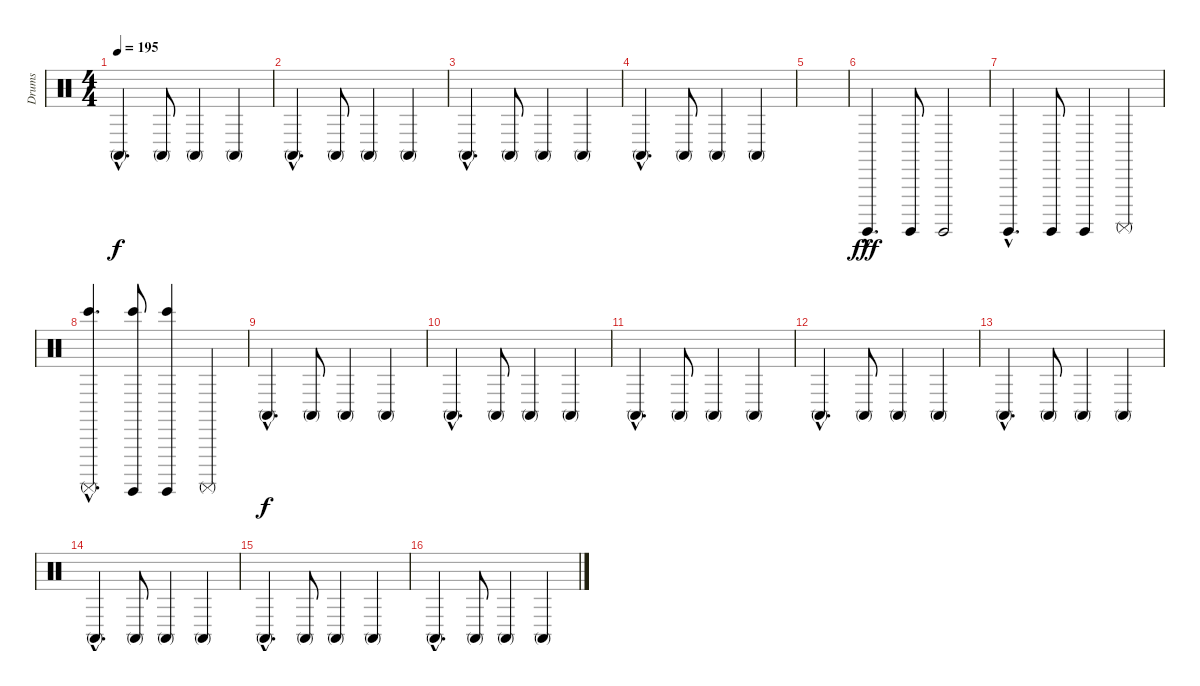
\track ("Drums" "Drums") {instrument percussion}
\staff {score}
\articulation defaults
\ts (4 4)
\tempo 195
\clef neutral
\ks c "Conga high (mute)"{hac}.4{d dy f} "Conga high (mute)".8 "Conga high (mute)".4 "Conga high (mute)".4
|
"Conga high (mute)"{hac}.4{d} "Conga high (mute)".8 "Conga high (mute)".4 "Conga high (mute)".4 |
"Conga high (mute)"{hac}.4{d} "Conga high (mute)".8 "Conga high (mute)".4 "Conga high (mute)".4 |
"Conga high (mute)"{hac}.4{d} "Conga high (mute)".8 "Conga high (mute)".4 "Conga high (mute)".4 |
|
"Surdo (hit)"{hac}.4{d dy fff} "Surdo (hit)".8 "Surdo (hit)".2 |
"Surdo (hit)"{hac}.4{d} "Surdo (hit)".8 "Surdo (hit)".4 "Surdo (mute)".4 |
("Surdo (mute)"{hac} "Bongo High (hit)"{hac}).4{d} ("Surdo (hit)" "Bongo High (hit)").8 ("Surdo (hit)" "Bongo High (hit)").4 "Surdo (mute)".4 |
"Conga high (mute)"{hac}.4{d dy f} "Conga high (mute)".8 "Conga high (mute)".4 "Conga high (mute)".4 |
"Conga high (mute)"{hac}.4{d} "Conga high (mute)".8 "Conga high (mute)".4 "Conga high (mute)".4 |
"Conga high (mute)"{hac}.4{d} "Conga high (mute)".8 "Conga high (mute)".4 "Conga high (mute)".4 |
"Conga high (mute)"{hac}.4{d} "Conga high (mute)".8 "Conga high (mute)".4 "Conga high (mute)".4 |
"Conga high (mute)"{hac}.4{d} "Conga high (mute)".8 "Conga high (mute)".4 "Conga high (mute)".4 |
"Conga high (mute)"{hac}.4{d} "Conga high (mute)".8 "Conga high (mute)".4 "Conga high (mute)".4 |
"Conga high (mute)"{hac}.4{d} "Conga high (mute)".8 "Conga high (mute)".4 "Conga high (mute)".4 |
"Conga high (mute)"{hac}.4{d} "Conga high (mute)".8 "Conga high (mute)".4 "Conga high (mute)".4
